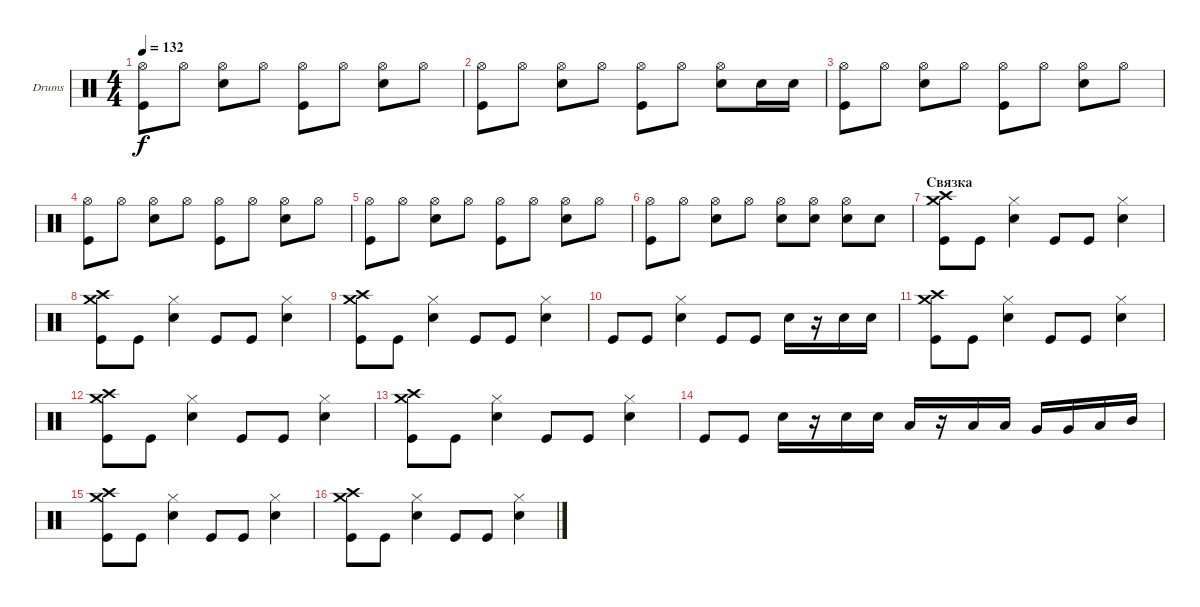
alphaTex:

\bracketExtendMode groupsimilarinstruments
\firstSystemTrackNameOrientation horizontal
\otherSystemsTrackNameOrientation horizontal
\track ("Александр Львов" "Drums") {instrument percussion}
\staff {score}
\articulation defaults
\ts (4 4)
\tempo 132
\clef neutral
\ks c
("Hi-Hat (open)" "Kick (hit)").8{dy f} "Hi-Hat (open)".8 ("Hi-Hat (open)" "Snare (hit) 2").8 "Hi-Hat (open)".8 ("Hi-Hat (open)" "Kick (hit)").8 "Hi-Hat (open)".8 ("Hi-Hat (open)" "Snare (hit) 2").8 "Hi-Hat (open)".8 |
("Hi-Hat (open)" "Kick (hit)").8 "Hi-Hat (open)".8 ("Hi-Hat (open)" "Snare (hit) 2").8 "Hi-Hat (open)".8 ("Hi-Hat (open)" "Kick (hit)").8 "Hi-Hat (open)".8 ("Hi-Hat (open)" "Snare (hit) 2").8 "Snare (hit) 2".16 "Snare (hit) 2".16 |
("Hi-Hat (open)" "Kick (hit)").8 "Hi-Hat (open)".8 ("Hi-Hat (open)" "Snare (hit) 2").8 "Hi-Hat (open)".8 ("Hi-Hat (open)" "Kick (hit)").8 "Hi-Hat (open)".8 ("Hi-Hat (open)" "Snare (hit) 2").8 "Hi-Hat (open)".8 |
("Hi-Hat (open)" "Kick (hit)").8 "Hi-Hat (open)".8 ("Hi-Hat (open)" "Snare (hit) 2").8 "Hi-Hat (open)".8 ("Hi-Hat (open)" "Kick (hit)").8 "Hi-Hat (open)".8 ("Hi-Hat (open)" "Snare (hit) 2").8 "Hi-Hat (open)".8 |
("Hi-Hat (open)" "Kick (hit)").8 "Hi-Hat (open)".8 ("Hi-Hat (open)" "Snare (hit) 2").8 "Hi-Hat (open)".8 ("Hi-Hat (open)" "Kick (hit)").8 "Hi-Hat (open)".8 ("Hi-Hat (open)" "Snare (hit) 2").8 "Hi-Hat (open)".8 |
("Hi-Hat (open)" "Kick (hit)").8 "Hi-Hat (open)".8 ("Hi-Hat (open)" "Snare (hit) 2").8 "Hi-Hat (open)".8 ("Hi-Hat (open)" "Snare (hit) 2").8 ("Hi-Hat (open)" "Snare (hit) 2").8 ("Hi-Hat (open)" "Snare (hit) 2").8 "Snare (hit) 2".8 |
\section ("" "Связка")
("Kick (hit)" "Crash medium (hit)" "Crash high (hit)").8 "Kick (hit)".8 ("Snare (hit) 2" "Hi-Hat (closed)").4 "Kick (hit)".8 "Kick (hit)".8 ("Snare (hit) 2" "Hi-Hat (closed)").4 |
("Kick (hit)" "Crash medium (hit)" "Crash high (hit)").8 "Kick (hit)".8 ("Snare (hit) 2" "Hi-Hat (closed)").4 "Kick (hit)".8 "Kick (hit)".8 ("Snare (hit) 2" "Hi-Hat (closed)").4 |
("Kick (hit)" "Crash medium (hit)" "Crash high (hit)").8 "Kick (hit)".8 ("Snare (hit) 2" "Hi-Hat (closed)").4 "Kick (hit)".8 "Kick (hit)".8 ("Snare (hit) 2" "Hi-Hat (closed)").4 |
"Kick (hit)".8 "Kick (hit)".8 ("Snare (hit) 2" "Hi-Hat (closed)").4 "Kick (hit)".8 "Kick (hit)".8 "Snare (hit) 2".16 r.16 "Snare (hit) 2".16 "Snare (hit) 2".16 |
("Kick (hit)" "Crash medium (hit)" "Crash high (hit)").8 "Kick (hit)".8 ("Snare (hit) 2" "Hi-Hat (closed)").4 "Kick (hit)".8 "Kick (hit)".8 ("Snare (hit) 2" "Hi-Hat (closed)").4 |
("Kick (hit)" "Crash medium (hit)" "Crash high (hit)").8 "Kick (hit)".8 ("Snare (hit) 2" "Hi-Hat (closed)").4 "Kick (hit)".8 "Kick (hit)".8 ("Snare (hit) 2" "Hi-Hat (closed)").4 |
("Kick (hit)" "Crash medium (hit)" "Crash high (hit)").8 "Kick (hit)".8 ("Snare (hit) 2" "Hi-Hat (closed)").4 "Kick (hit)".8 "Kick (hit)".8 ("Snare (hit) 2" "Hi-Hat (closed)").4 |
"Kick (hit)".8 "Kick (hit)".8 "Snare (hit) 2".16 r.16 "Snare (hit) 2".16 "Snare (hit) 2".16 "Low Tom (hit)".16 r.16 "Low Tom (hit)".16 "Low Tom (hit)".16 "Very Low Tom (hit)".16 "Very Low Tom (hit)".16 "Low Tom (hit)".16 "Mid Tom (hit)".16 |
("Kick (hit)" "Crash medium (hit)" "Crash high (hit)").8 "Kick (hit)".8 ("Snare (hit) 2" "Hi-Hat (closed)").4 "Kick (hit)".8 "Kick (hit)".8 ("Snare (hit) 2" "Hi-Hat (closed)").4 |
("Kick (hit)" "Crash medium (hit)" "Crash high (hit)").8 "Kick (hit)".8 ("Snare (hit) 2" "Hi-Hat (closed)").4 "Kick (hit)".8 "Kick (hit)".8 ("Snare (hit) 2" "Hi-Hat (closed)").4
